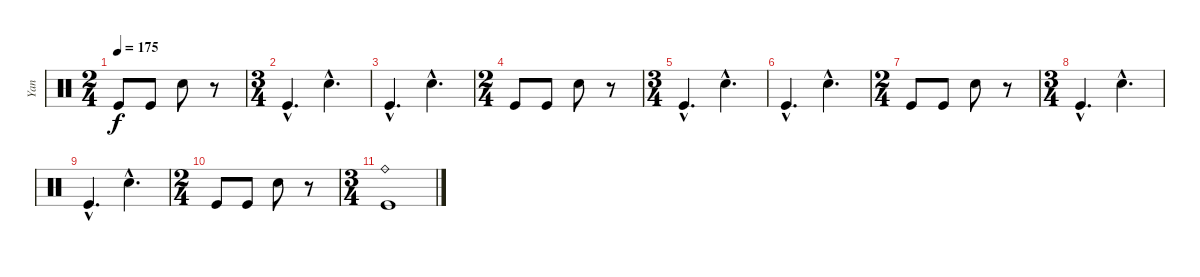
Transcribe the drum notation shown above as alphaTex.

\track ("Yan" "Yan") {instrument percussion}
\staff {score}
\articulation defaults
\ts (2 4)
\tempo 175
\clef neutral
\ks c "Kick (hit)".8{dy f} "Kick (hit)".8 "Snare (hit) 2".8
r.8 |
\ts (3 4)
"Kick (hit)"{hac}.4{d} "Snare (hit) 2"{hac}.4{d} |
"Kick (hit)"{hac}.4{d} "Snare (hit) 2"{hac}.4{d} |
\ts (2 4)
"Kick (hit)".8 "Kick (hit)".8 "Snare (hit) 2".8 r.8 |
\ts (3 4)
"Kick (hit)"{hac}.4{d} "Snare (hit) 2"{hac}.4{d} |
"Kick (hit)"{hac}.4{d} "Snare (hit) 2"{hac}.4{d} |
\ts (2 4)
"Kick (hit)".8 "Kick (hit)".8 "Snare (hit) 2".8 r.8 |
\ts (3 4)
"Kick (hit)"{hac}.4{d} "Snare (hit) 2"{hac}.4{d} |
"Kick (hit)"{hac}.4{d} "Snare (hit) 2"{hac}.4{d} |
\ts (2 4)
"Kick (hit)".8 "Kick (hit)".8 "Snare (hit) 2".8 r.8 |
\ts (3 4)
("Kick (hit)" "Ride (bell)").1
